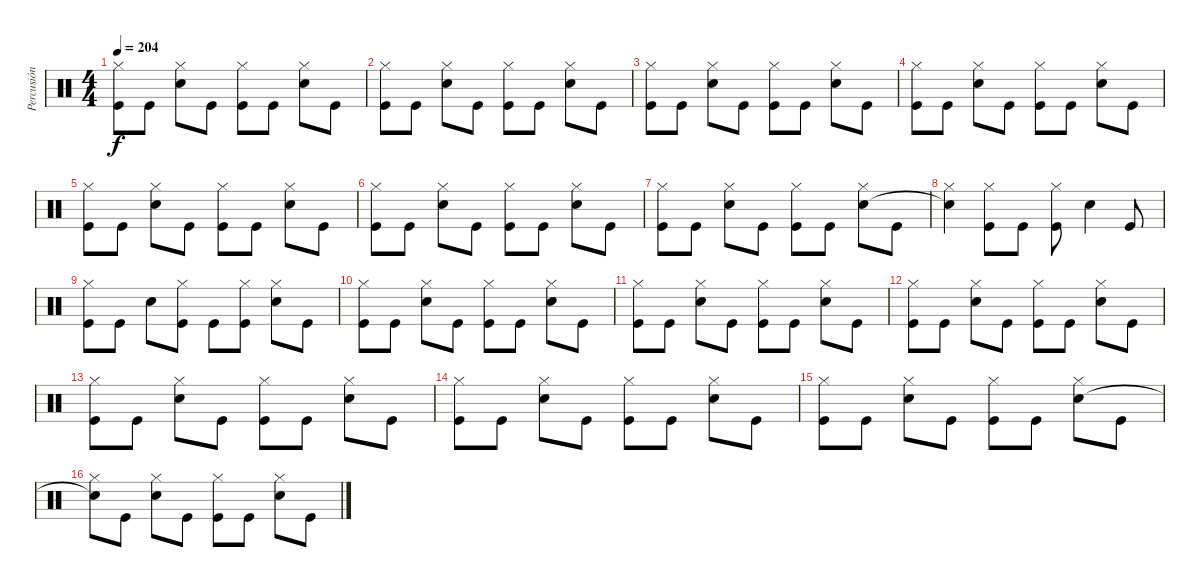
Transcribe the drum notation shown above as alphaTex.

\track ("Percusión" "Percusión") {instrument percussion}
\staff {score}
\articulation defaults
\ts (4 4)
\tempo 204
\clef neutral
\ks c
("Hi-Hat (closed)" "Kick (hit)").8{dy f} "Kick (hit)".8 ("Hi-Hat (closed)" "Snare (hit) 2").8 "Kick (hit)".8 ("Hi-Hat (closed)" "Kick (hit)").8 "Kick (hit)".8 ("Hi-Hat (closed)" "Snare (hit) 2").8 "Kick (hit)".8 |
("Hi-Hat (closed)" "Kick (hit)").8 "Kick (hit)".8 ("Hi-Hat (closed)" "Snare (hit) 2").8 "Kick (hit)".8 ("Hi-Hat (closed)" "Kick (hit)").8 "Kick (hit)".8 ("Hi-Hat (closed)" "Snare (hit) 2").8 "Kick (hit)".8 |
("Hi-Hat (closed)" "Kick (hit)").8 "Kick (hit)".8 ("Hi-Hat (closed)" "Snare (hit) 2").8 "Kick (hit)".8 ("Hi-Hat (closed)" "Kick (hit)").8 "Kick (hit)".8 ("Hi-Hat (closed)" "Snare (hit) 2").8 "Kick (hit)".8 |
("Hi-Hat (closed)" "Kick (hit)").8 "Kick (hit)".8 ("Hi-Hat (closed)" "Snare (hit) 2").8 "Kick (hit)".8 ("Hi-Hat (closed)" "Kick (hit)").8 "Kick (hit)".8 ("Hi-Hat (closed)" "Snare (hit) 2").8 "Kick (hit)".8 |
("Hi-Hat (closed)" "Kick (hit)").8 "Kick (hit)".8 ("Hi-Hat (closed)" "Snare (hit) 2").8 "Kick (hit)".8 ("Hi-Hat (closed)" "Kick (hit)").8 "Kick (hit)".8 ("Hi-Hat (closed)" "Snare (hit) 2").8 "Kick (hit)".8 |
("Hi-Hat (closed)" "Kick (hit)").8 "Kick (hit)".8 ("Hi-Hat (closed)" "Snare (hit) 2").8 "Kick (hit)".8 ("Hi-Hat (closed)" "Kick (hit)").8 "Kick (hit)".8 ("Hi-Hat (closed)" "Snare (hit) 2").8 "Kick (hit)".8 |
("Hi-Hat (closed)" "Kick (hit)").8 "Kick (hit)".8 ("Hi-Hat (closed)" "Snare (hit) 2").8 "Kick (hit)".8 ("Hi-Hat (closed)" "Kick (hit)").8 "Kick (hit)".8 ("Hi-Hat (closed)" "Snare (hit) 2").8 "Kick (hit)".8 |
("Hi-Hat (closed)" "Snare (hit)"{t}).4 ("Hi-Hat (closed)" "Kick (hit)").8 "Kick (hit)".8 ("Hi-Hat (closed)" "Kick (hit)").8 "Snare (hit) 2".4 "Kick (hit)".8 |
("Hi-Hat (closed)" "Kick (hit)").8 "Kick (hit)".8 "Snare (hit) 2".8 ("Hi-Hat (closed)" "Kick (hit)").8 "Kick (hit)".8 ("Hi-Hat (closed)" "Kick (hit)").8 ("Hi-Hat (closed)" "Snare (hit) 2").8 "Kick (hit)".8 |
("Hi-Hat (closed)" "Kick (hit)").8 "Kick (hit)".8 ("Hi-Hat (closed)" "Snare (hit) 2").8 "Kick (hit)".8 ("Hi-Hat (closed)" "Kick (hit)").8 "Kick (hit)".8 ("Hi-Hat (closed)" "Snare (hit) 2").8 "Kick (hit)".8 |
("Hi-Hat (closed)" "Kick (hit)").8 "Kick (hit)".8 ("Hi-Hat (closed)" "Snare (hit) 2").8 "Kick (hit)".8 ("Hi-Hat (closed)" "Kick (hit)").8 "Kick (hit)".8 ("Hi-Hat (closed)" "Snare (hit) 2").8 "Kick (hit)".8 |
("Hi-Hat (closed)" "Kick (hit)").8 "Kick (hit)".8 ("Hi-Hat (closed)" "Snare (hit) 2").8 "Kick (hit)".8 ("Hi-Hat (closed)" "Kick (hit)").8 "Kick (hit)".8 ("Hi-Hat (closed)" "Snare (hit) 2").8 "Kick (hit)".8 |
("Hi-Hat (closed)" "Kick (hit)").8 "Kick (hit)".8 ("Hi-Hat (closed)" "Snare (hit) 2").8 "Kick (hit)".8 ("Hi-Hat (closed)" "Kick (hit)").8 "Kick (hit)".8 ("Hi-Hat (closed)" "Snare (hit) 2").8 "Kick (hit)".8 |
("Hi-Hat (closed)" "Kick (hit)").8 "Kick (hit)".8 ("Hi-Hat (closed)" "Snare (hit) 2").8 "Kick (hit)".8 ("Hi-Hat (closed)" "Kick (hit)").8 "Kick (hit)".8 ("Hi-Hat (closed)" "Snare (hit) 2").8 "Kick (hit)".8 |
("Hi-Hat (closed)" "Kick (hit)").8 "Kick (hit)".8 ("Hi-Hat (closed)" "Snare (hit) 2").8 "Kick (hit)".8 ("Hi-Hat (closed)" "Kick (hit)").8 "Kick (hit)".8 ("Hi-Hat (closed)" "Snare (hit) 2").8 "Kick (hit)".8 |
("Hi-Hat (closed)" "Snare (hit)"{t}).8 "Kick (hit)".8 ("Hi-Hat (closed)" "Snare (hit) 2").8 "Kick (hit)".8 ("Hi-Hat (closed)" "Kick (hit)").8 "Kick (hit)".8 ("Hi-Hat (closed)" "Snare (hit) 2").8 "Kick (hit)".8
